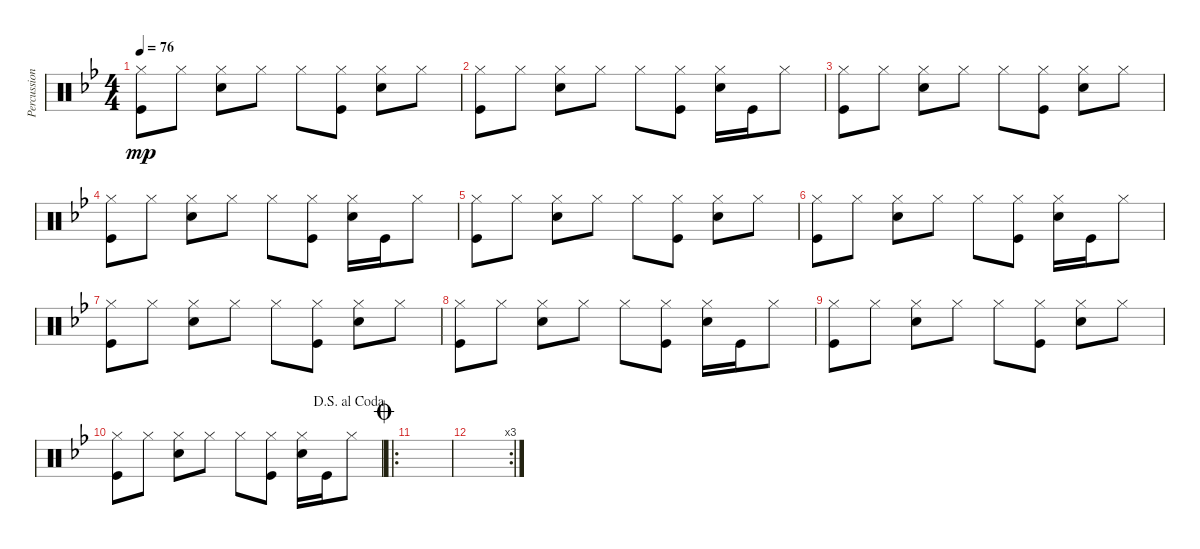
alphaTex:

\track ("Percussions" "Percussion") {instrument percussion}
\staff {score}
\articulation defaults
\ts (4 4)
\tempo 76
\clef neutral
\ks bb
("Hi-Hat (closed)" "Kick (hit)").8{dy mp} "Hi-Hat (closed)".8 ("Hi-Hat (closed)" "Snare (hit) 2").8 "Hi-Hat (closed)".8 "Hi-Hat (closed)".8 ("Hi-Hat (closed)" "Kick (hit)").8 ("Snare (hit) 2" "Hi-Hat (closed)").8 "Hi-Hat (closed)".8 |
("Hi-Hat (closed)" "Kick (hit)").8 "Hi-Hat (closed)".8 ("Hi-Hat (closed)" "Snare (hit) 2").8 "Hi-Hat (closed)".8 "Hi-Hat (closed)".8 ("Hi-Hat (closed)" "Kick (hit)").8 ("Hi-Hat (closed)" "Snare (hit) 2").16 "Kick (hit)".16 "Hi-Hat (closed)".8 |
("Hi-Hat (closed)" "Kick (hit)").8 "Hi-Hat (closed)".8 ("Hi-Hat (closed)" "Snare (hit) 2").8 "Hi-Hat (closed)".8 "Hi-Hat (closed)".8 ("Hi-Hat (closed)" "Kick (hit)").8 ("Snare (hit) 2" "Hi-Hat (closed)").8 "Hi-Hat (closed)".8 |
("Hi-Hat (closed)" "Kick (hit)").8 "Hi-Hat (closed)".8 ("Hi-Hat (closed)" "Snare (hit) 2").8 "Hi-Hat (closed)".8 "Hi-Hat (closed)".8 ("Hi-Hat (closed)" "Kick (hit)").8 ("Hi-Hat (closed)" "Snare (hit) 2").16 "Kick (hit)".16 "Hi-Hat (closed)".8 |
("Hi-Hat (closed)" "Kick (hit)").8 "Hi-Hat (closed)".8 ("Hi-Hat (closed)" "Snare (hit) 2").8 "Hi-Hat (closed)".8 "Hi-Hat (closed)".8 ("Hi-Hat (closed)" "Kick (hit)").8 ("Snare (hit) 2" "Hi-Hat (closed)").8 "Hi-Hat (closed)".8 |
("Hi-Hat (closed)" "Kick (hit)").8 "Hi-Hat (closed)".8 ("Hi-Hat (closed)" "Snare (hit) 2").8 "Hi-Hat (closed)".8 "Hi-Hat (closed)".8 ("Hi-Hat (closed)" "Kick (hit)").8 ("Hi-Hat (closed)" "Snare (hit) 2").16 "Kick (hit)".16 "Hi-Hat (closed)".8 |
("Hi-Hat (closed)" "Kick (hit)").8 "Hi-Hat (closed)".8 ("Hi-Hat (closed)" "Snare (hit) 2").8 "Hi-Hat (closed)".8 "Hi-Hat (closed)".8 ("Hi-Hat (closed)" "Kick (hit)").8 ("Snare (hit) 2" "Hi-Hat (closed)").8 "Hi-Hat (closed)".8 |
("Hi-Hat (closed)" "Kick (hit)").8 "Hi-Hat (closed)".8 ("Hi-Hat (closed)" "Snare (hit) 2").8 "Hi-Hat (closed)".8 "Hi-Hat (closed)".8 ("Hi-Hat (closed)" "Kick (hit)").8 ("Hi-Hat (closed)" "Snare (hit) 2").16 "Kick (hit)".16 "Hi-Hat (closed)".8 |
("Hi-Hat (closed)" "Kick (hit)").8 "Hi-Hat (closed)".8 ("Hi-Hat (closed)" "Snare (hit) 2").8 "Hi-Hat (closed)".8 "Hi-Hat (closed)".8 ("Hi-Hat (closed)" "Kick (hit)").8 ("Snare (hit) 2" "Hi-Hat (closed)").8 "Hi-Hat (closed)".8 |
\jump dalsegnoalcoda
("Hi-Hat (closed)" "Kick (hit)").8 "Hi-Hat (closed)".8 ("Hi-Hat (closed)" "Snare (hit) 2").8 "Hi-Hat (closed)".8 "Hi-Hat (closed)".8 ("Hi-Hat (closed)" "Kick (hit)").8 ("Hi-Hat (closed)" "Snare (hit) 2").16 "Kick (hit)".16 "Hi-Hat (closed)".8 |
\ro
\jump coda
|
\rc 3
